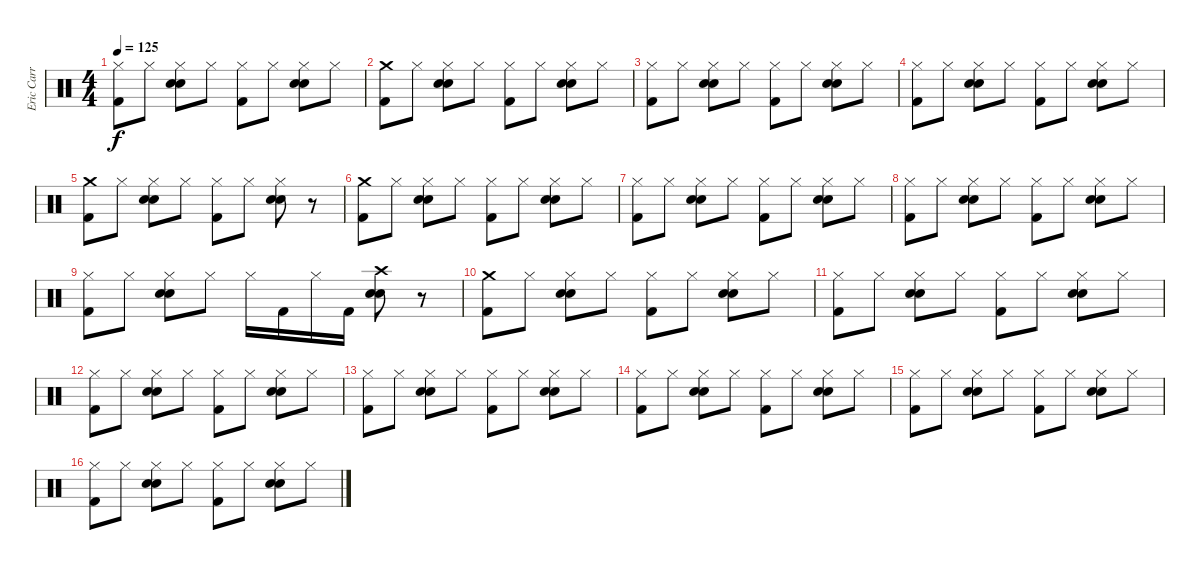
\track ("Eric Carr" "Eric Carr") {instrument percussion}
\staff {score}
\articulation defaults
\ts (4 4)
\tempo 125
\clef neutral
\ks c
("Hi-Hat (closed)" "Kick (hit) 2").8{dy f} "Hi-Hat (closed)".8 ("Hi-Hat (closed)" "Electric Snare (hit)" "Snare (hit) 2").8 "Hi-Hat (closed)".8 ("Hi-Hat (closed)" "Kick (hit) 2").8 "Hi-Hat (closed)".8 ("Hi-Hat (closed)" "Snare (hit) 2" "Electric Snare (hit)").8 "Hi-Hat (closed)".8 |
("Crash medium (hit)" "Kick (hit) 2").8 "Hi-Hat (closed)".8 ("Hi-Hat (closed)" "Electric Snare (hit)" "Snare (hit) 2").8 "Hi-Hat (closed)".8 ("Hi-Hat (closed)" "Kick (hit) 2").8 "Hi-Hat (closed)".8 ("Hi-Hat (closed)" "Snare (hit) 2" "Electric Snare (hit)").8 "Hi-Hat (closed)".8 |
("Hi-Hat (closed)" "Kick (hit) 2").8 "Hi-Hat (closed)".8 ("Hi-Hat (closed)" "Electric Snare (hit)" "Snare (hit) 2").8 "Hi-Hat (closed)".8 ("Hi-Hat (closed)" "Kick (hit) 2").8 "Hi-Hat (closed)".8 ("Hi-Hat (closed)" "Snare (hit) 2" "Electric Snare (hit)").8 "Hi-Hat (closed)".8 |
("Hi-Hat (closed)" "Kick (hit) 2").8 "Hi-Hat (closed)".8 ("Hi-Hat (closed)" "Electric Snare (hit)" "Snare (hit) 2").8 "Hi-Hat (closed)".8 ("Hi-Hat (closed)" "Kick (hit) 2").8 "Hi-Hat (closed)".8 ("Hi-Hat (closed)" "Snare (hit) 2" "Electric Snare (hit)").8 "Hi-Hat (closed)".8 |
("Crash medium (hit)" "Kick (hit) 2").8 "Hi-Hat (closed)".8 ("Hi-Hat (closed)" "Electric Snare (hit)" "Snare (hit) 2").8 "Hi-Hat (closed)".8 ("Hi-Hat (closed)" "Kick (hit) 2").8 "Hi-Hat (closed)".8 ("Hi-Hat (closed)" "Snare (hit) 2" "Electric Snare (hit)").8 r.8 |
("Crash medium (hit)" "Kick (hit) 2").8 "Hi-Hat (closed)".8 ("Hi-Hat (closed)" "Electric Snare (hit)" "Snare (hit) 2").8 "Hi-Hat (closed)".8 ("Hi-Hat (closed)" "Kick (hit) 2").8 "Hi-Hat (closed)".8 ("Hi-Hat (closed)" "Snare (hit) 2" "Electric Snare (hit)").8 "Hi-Hat (closed)".8 |
("Hi-Hat (closed)" "Kick (hit) 2").8 "Hi-Hat (closed)".8 ("Hi-Hat (closed)" "Electric Snare (hit)" "Snare (hit) 2").8 "Hi-Hat (closed)".8 ("Hi-Hat (closed)" "Kick (hit) 2").8 "Hi-Hat (closed)".8 ("Hi-Hat (closed)" "Snare (hit) 2" "Electric Snare (hit)").8 "Hi-Hat (closed)".8 |
("Hi-Hat (closed)" "Kick (hit) 2").8 "Hi-Hat (closed)".8 ("Hi-Hat (closed)" "Electric Snare (hit)" "Snare (hit) 2").8 "Hi-Hat (closed)".8 ("Hi-Hat (closed)" "Kick (hit) 2").8 "Hi-Hat (closed)".8 ("Hi-Hat (closed)" "Snare (hit) 2" "Electric Snare (hit)").8 "Hi-Hat (closed)".8 |
("Hi-Hat (closed)" "Kick (hit) 2").8 "Hi-Hat (closed)".8 ("Hi-Hat (closed)" "Electric Snare (hit)" "Snare (hit) 2").8 "Hi-Hat (closed)".8 "Hi-Hat (closed)".16 "Kick (hit) 2".16 "Hi-Hat (closed)".16 "Kick (hit) 2".16 ("Crash high (hit)" "Snare (hit) 2" "Electric Snare (hit)").8 r.8 |
("Crash medium (hit)" "Kick (hit) 2").8 "Hi-Hat (closed)".8 ("Hi-Hat (closed)" "Electric Snare (hit)" "Snare (hit) 2").8 "Hi-Hat (closed)".8 ("Hi-Hat (closed)" "Kick (hit) 2").8 "Hi-Hat (closed)".8 ("Hi-Hat (closed)" "Snare (hit) 2" "Electric Snare (hit)").8 "Hi-Hat (closed)".8 |
("Hi-Hat (closed)" "Kick (hit) 2").8 "Hi-Hat (closed)".8 ("Hi-Hat (closed)" "Electric Snare (hit)" "Snare (hit) 2").8 "Hi-Hat (closed)".8 ("Hi-Hat (closed)" "Kick (hit) 2").8 "Hi-Hat (closed)".8 ("Hi-Hat (closed)" "Snare (hit) 2" "Electric Snare (hit)").8 "Hi-Hat (closed)".8 |
("Hi-Hat (closed)" "Kick (hit) 2").8 "Hi-Hat (closed)".8 ("Hi-Hat (closed)" "Electric Snare (hit)" "Snare (hit) 2").8 "Hi-Hat (closed)".8 ("Hi-Hat (closed)" "Kick (hit) 2").8 "Hi-Hat (closed)".8 ("Hi-Hat (closed)" "Snare (hit) 2" "Electric Snare (hit)").8 "Hi-Hat (closed)".8 |
("Hi-Hat (closed)" "Kick (hit) 2").8 "Hi-Hat (closed)".8 ("Hi-Hat (closed)" "Electric Snare (hit)" "Snare (hit) 2").8 "Hi-Hat (closed)".8 ("Hi-Hat (closed)" "Kick (hit) 2").8 "Hi-Hat (closed)".8 ("Hi-Hat (closed)" "Snare (hit) 2" "Electric Snare (hit)").8 "Hi-Hat (closed)".8 |
("Hi-Hat (closed)" "Kick (hit) 2").8 "Hi-Hat (closed)".8 ("Hi-Hat (closed)" "Electric Snare (hit)" "Snare (hit) 2").8 "Hi-Hat (closed)".8 ("Hi-Hat (closed)" "Kick (hit) 2").8 "Hi-Hat (closed)".8 ("Hi-Hat (closed)" "Snare (hit) 2" "Electric Snare (hit)").8 "Hi-Hat (closed)".8 |
("Hi-Hat (closed)" "Kick (hit) 2").8 "Hi-Hat (closed)".8 ("Hi-Hat (closed)" "Electric Snare (hit)" "Snare (hit) 2").8 "Hi-Hat (closed)".8 ("Hi-Hat (closed)" "Kick (hit) 2").8 "Hi-Hat (closed)".8 ("Hi-Hat (closed)" "Snare (hit) 2" "Electric Snare (hit)").8 "Hi-Hat (closed)".8 |
("Hi-Hat (closed)" "Kick (hit) 2").8 "Hi-Hat (closed)".8 ("Hi-Hat (closed)" "Electric Snare (hit)" "Snare (hit) 2").8 "Hi-Hat (closed)".8 ("Hi-Hat (closed)" "Kick (hit) 2").8 "Hi-Hat (closed)".8 ("Hi-Hat (closed)" "Snare (hit) 2" "Electric Snare (hit)").8 "Hi-Hat (closed)".8
